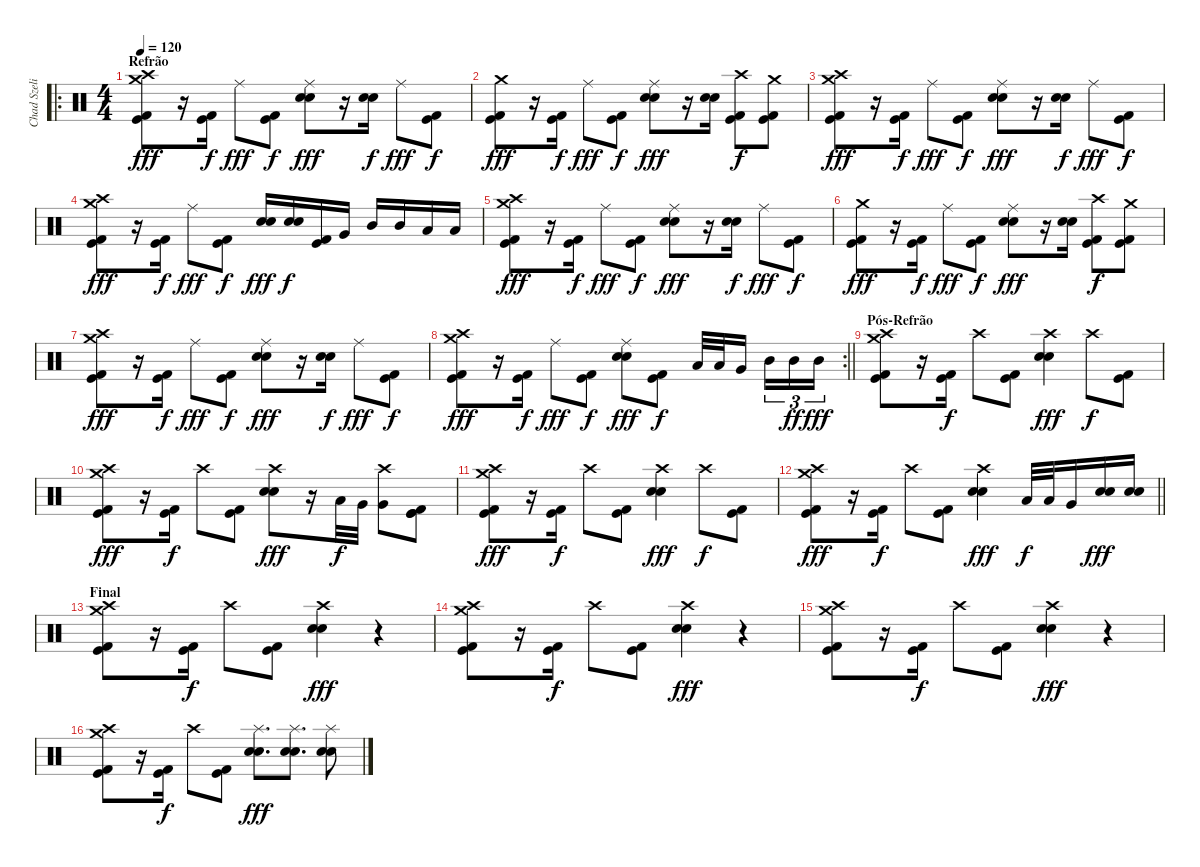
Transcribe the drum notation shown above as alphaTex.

\track ("Chad Szeliga" "Chad Szeli") {instrument percussion}
\staff {score}
\articulation defaults
\ro
\ts (4 4)
\section ("" "Refrão")
\tempo 120
\clef neutral
\ks c
("Crash high (hit)" "Kick (hit) 2" "Kick (hit)" "Crash medium (hit)").8{dy fff} r.16 ("Kick (hit) 2" "Kick (hit)").16{dy f beam Down} "Ride (middle)".8{dy fff} ("Kick (hit) 2" "Kick (hit)").8{dy f} ("Ride (middle)" "Snare (hit) 2" "Snare (hit) 2").8{dy fff} r.16 ("Snare (hit) 2" "Snare (hit) 2").16{dy f} "Ride (middle)".8{dy fff} ("Kick (hit) 2" "Kick (hit)").8{dy f} |
("Crash medium (hit)" "Kick (hit) 2" "Kick (hit)").8{dy fff} r.16 ("Kick (hit) 2" "Kick (hit)").16{dy f beam Down} "Ride (middle)".8{dy fff} ("Kick (hit) 2" "Kick (hit)").8{dy f} ("Ride (middle)" "Snare (hit) 2" "Snare (hit) 2").8{dy fff} r.16 ("Snare (hit) 2" "Snare (hit) 2").16 ("Crash high (hit)" "Kick (hit) 2" "Kick (hit)").8{dy f} ("Crash medium (hit)" "Kick (hit) 2" "Kick (hit)").8 |
("Crash high (hit)" "Kick (hit) 2" "Kick (hit)" "Crash medium (hit)").8{dy fff} r.16 ("Kick (hit) 2" "Kick (hit)").16{dy f beam Down} "Ride (middle)".8{dy fff} ("Kick (hit) 2" "Kick (hit)").8{dy f} ("Ride (middle)" "Snare (hit) 2" "Snare (hit) 2").8{dy fff} r.16 ("Snare (hit) 2" "Snare (hit) 2").16{dy f} "Ride (middle)".8{dy fff} ("Kick (hit) 2" "Kick (hit)").8{dy f} |
("Crash high (hit)" "Kick (hit) 2" "Kick (hit)" "Crash medium (hit)").8{dy fff} r.16 ("Kick (hit) 2" "Kick (hit)").16{dy f beam Down} "Ride (middle)".8{dy fff} ("Kick (hit) 2" "Kick (hit)").8{dy f} ("Snare (hit) 2" "Snare (hit) 2").16{dy fff} ("Snare (hit) 2" "Snare (hit) 2").16{dy f} ("Kick (hit) 2" "Kick (hit)").16 "Very Low Tom (hit)".16 "Mid Tom (hit)".16 "Mid Tom (hit)".16 "Low Tom (hit)".16 "Low Tom (hit)".16 |
("Crash high (hit)" "Kick (hit) 2" "Kick (hit)" "Crash medium (hit)").8{dy fff} r.16 ("Kick (hit) 2" "Kick (hit)").16{dy f beam Down} "Ride (middle)".8{dy fff} ("Kick (hit) 2" "Kick (hit)").8{dy f} ("Ride (middle)" "Snare (hit) 2" "Snare (hit) 2").8{dy fff} r.16 ("Snare (hit) 2" "Snare (hit) 2").16{dy f} "Ride (middle)".8{dy fff} ("Kick (hit) 2" "Kick (hit)").8{dy f} |
("Crash medium (hit)" "Kick (hit) 2" "Kick (hit)").8{dy fff} r.16 ("Kick (hit) 2" "Kick (hit)").16{dy f beam Down} "Ride (middle)".8{dy fff} ("Kick (hit) 2" "Kick (hit)").8{dy f} ("Ride (middle)" "Snare (hit) 2" "Snare (hit) 2").8{dy fff} r.16 ("Snare (hit) 2" "Snare (hit) 2").16 ("Crash high (hit)" "Kick (hit) 2" "Kick (hit)").8{dy f} ("Crash medium (hit)" "Kick (hit) 2" "Kick (hit)").8 |
("Crash high (hit)" "Kick (hit) 2" "Kick (hit)" "Crash medium (hit)").8{dy fff} r.16 ("Kick (hit) 2" "Kick (hit)").16{dy f beam Down} "Ride (middle)".8{dy fff} ("Kick (hit) 2" "Kick (hit)").8{dy f} ("Ride (middle)" "Snare (hit) 2" "Snare (hit) 2").8{dy fff} r.16 ("Snare (hit) 2" "Snare (hit) 2").16{dy f} "Ride (middle)".8{dy fff} ("Kick (hit) 2" "Kick (hit)").8{dy f} |
\rc 2
\barLineRight lightlight
("Crash high (hit)" "Kick (hit) 2" "Kick (hit)" "Crash medium (hit)").8{dy fff} r.16 ("Kick (hit) 2" "Kick (hit)").16{dy f beam Down} "Ride (middle)".8{dy fff} ("Kick (hit) 2" "Kick (hit)").8{dy f} ("Ride (middle)" "Snare (hit) 2" "Snare (hit) 2").8{dy fff} ("Kick (hit) 2" "Kick (hit)").8{dy f} "Low Tom (hit)".32 "Low Tom (hit)".32 "Very Low Tom (hit)".16{beam splitsecondary} "Mid Tom (hit)".16{tu (3 2)} "Mid Tom (hit)".16{tu (3 2) dy ff} "Mid Tom (hit)".16{tu (3 2) dy fff} |
\section ("" "Pós-Refrão")
("Crash high (hit)" "Kick (hit) 2" "Kick (hit)" "Crash medium (hit)").8 r.16 ("Kick (hit) 2" "Kick (hit)").16{dy f beam Down} "Crash high (hit)".8 ("Kick (hit) 2" "Kick (hit)").8 ("Crash high (hit)" "Snare (hit) 2" "Snare (hit) 2").4{dy fff} "Crash high (hit)".8{dy f} ("Kick (hit) 2" "Kick (hit)").8 |
("Crash high (hit)" "Kick (hit) 2" "Kick (hit)" "Crash medium (hit)").8{dy fff} r.16 ("Kick (hit) 2" "Kick (hit)").16{dy f beam Down} "Crash high (hit)".8 ("Kick (hit) 2" "Kick (hit)").8 ("Crash high (hit)" "Snare (hit) 2" "Snare (hit) 2").8{dy fff} r.16 "Low Tom (hit)".32{dy f} "Very Low Tom (hit)".32 ("Crash high (hit)" "Very Low Tom (hit)").8 ("Kick (hit) 2" "Kick (hit)" "Kick (hit)").8 |
("Crash high (hit)" "Kick (hit) 2" "Kick (hit)" "Crash medium (hit)").8{dy fff} r.16 ("Kick (hit) 2" "Kick (hit)").16{dy f beam Down} "Crash high (hit)".8 ("Kick (hit) 2" "Kick (hit)").8 ("Crash high (hit)" "Snare (hit) 2" "Snare (hit) 2").4{dy fff} "Crash high (hit)".8{dy f} ("Kick (hit) 2" "Kick (hit)").8 |
\barLineRight lightlight
("Crash high (hit)" "Kick (hit) 2" "Kick (hit)" "Crash medium (hit)").8{dy fff} r.16 ("Kick (hit) 2" "Kick (hit)").16{dy f beam Down} "Crash high (hit)".8 ("Kick (hit) 2" "Kick (hit)").8 ("Crash high (hit)" "Snare (hit) 2" "Snare (hit) 2").4{dy fff} "Low Tom (hit)".32{dy f} "Low Tom (hit)".32 "Very Low Tom (hit)".16 ("Snare (hit) 2" "Snare (hit) 2").16{dy fff} ("Snare (hit) 2" "Snare (hit) 2").16 |
\section ("" "Final")
("Crash high (hit)" "Kick (hit) 2" "Kick (hit)" "Crash medium (hit)").8 r.16 ("Kick (hit) 2" "Kick (hit)").16{dy f beam Down} "Crash high (hit)".8 ("Kick (hit) 2" "Kick (hit)").8 ("Crash high (hit)" "Snare (hit) 2" "Snare (hit) 2").4{dy fff} r.4 |
("Crash high (hit)" "Kick (hit) 2" "Kick (hit)" "Crash medium (hit)").8 r.16 ("Kick (hit) 2" "Kick (hit)").16{dy f beam Down} "Crash high (hit)".8 ("Kick (hit) 2" "Kick (hit)").8 ("Crash high (hit)" "Snare (hit) 2" "Snare (hit) 2").4{dy fff} r.4 |
("Crash high (hit)" "Kick (hit) 2" "Kick (hit)" "Crash medium (hit)").8 r.16 ("Kick (hit) 2" "Kick (hit)").16{dy f beam Down} "Crash high (hit)".8 ("Kick (hit) 2" "Kick (hit)").8 ("Crash high (hit)" "Snare (hit) 2" "Snare (hit) 2").4{dy fff} r.4 |
("Crash high (hit)" "Kick (hit) 2" "Kick (hit)" "Crash medium (hit)").8 r.16 ("Kick (hit) 2" "Kick (hit)").16{dy f beam Down} "Crash high (hit)".8 ("Kick (hit) 2" "Kick (hit)").8 ("Splash (hit)" "Snare (hit) 2" "Snare (hit) 2").8{d dy fff} ("Splash (hit)" "Snare (hit) 2" "Snare (hit) 2").8{d} ("Splash (hit)" "Snare (hit) 2" "Snare (hit) 2").8
